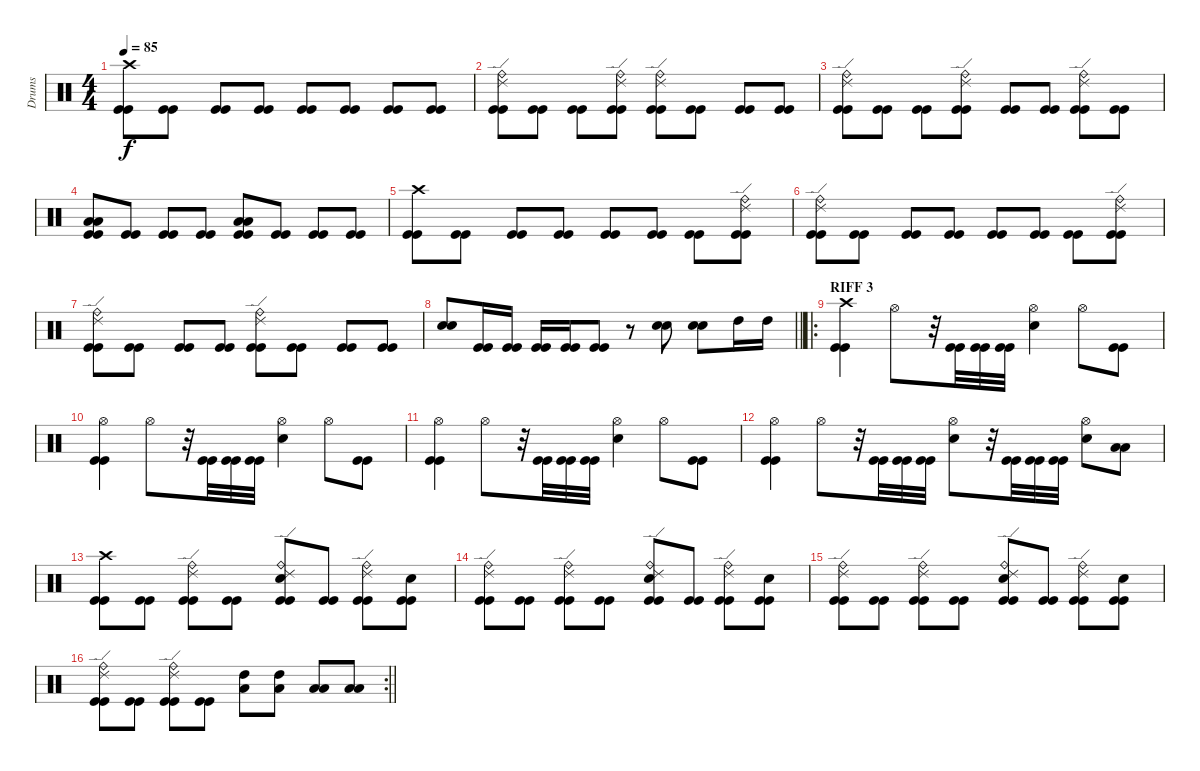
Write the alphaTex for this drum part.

\track ("Drums" "Drums") {instrument percussion}
\staff {score}
\articulation defaults
\ts (4 4)
\tempo 85
\clef neutral
\ks c
("Crash high (hit)" "Kick (hit)" "Kick (hit)").8{dy f} ("Kick (hit)" "Kick (hit)").8 ("Kick (hit)" "Kick (hit)").8 ("Kick (hit)" "Kick (hit)").8 ("Kick (hit)" "Kick (hit)").8 ("Kick (hit)" "Kick (hit)").8 ("Kick (hit)" "Kick (hit)").8 ("Kick (hit)" "Kick (hit)").8 |
("Ride (edge) 2" "Ride (bell)" "Kick (hit)" "Kick (hit)").8 ("Kick (hit)" "Kick (hit)").8 ("Kick (hit)" "Kick (hit)").8 ("Ride (edge) 2" "Ride (bell)" "Kick (hit)" "Kick (hit)").8 ("Ride (edge) 2" "Ride (bell)" "Kick (hit)" "Kick (hit)").8 ("Kick (hit)" "Kick (hit)").8 ("Kick (hit)" "Kick (hit)").8 ("Kick (hit)" "Kick (hit)").8 |
("Ride (edge) 2" "Ride (bell)" "Kick (hit)" "Kick (hit)").8 ("Kick (hit)" "Kick (hit)").8 ("Kick (hit)" "Kick (hit)").8 ("Ride (edge) 2" "Ride (bell)" "Kick (hit)" "Kick (hit)").8 ("Kick (hit)" "Kick (hit)").8 ("Kick (hit)" "Kick (hit)").8 ("Ride (edge) 2" "Ride (bell)" "Kick (hit)" "Kick (hit)").8 ("Kick (hit)" "Kick (hit)").8 |
("Low Floor Tom (hit)" "Low Tom (hit)" "Kick (hit)" "Kick (hit)").8 ("Kick (hit)" "Kick (hit)").8 ("Kick (hit)" "Kick (hit)").8 ("Kick (hit)" "Kick (hit)").8 ("Low Floor Tom (hit)" "Low Tom (hit)" "Kick (hit)" "Kick (hit)").8 ("Kick (hit)" "Kick (hit)").8 ("Kick (hit)" "Kick (hit)").8 ("Kick (hit)" "Kick (hit)").8 |
("Crash high (hit)" "Kick (hit)" "Kick (hit)").8 ("Kick (hit)" "Kick (hit)").8 ("Kick (hit)" "Kick (hit)").8 ("Kick (hit)" "Kick (hit)").8 ("Kick (hit)" "Kick (hit)").8 ("Kick (hit)" "Kick (hit)").8 ("Kick (hit)" "Kick (hit)").8 ("Ride (edge) 2" "Ride (bell)" "Kick (hit)" "Kick (hit)").8 |
("Ride (edge) 2" "Ride (bell)" "Kick (hit)" "Kick (hit)").8 ("Kick (hit)" "Kick (hit)").8 ("Kick (hit)" "Kick (hit)").8 ("Kick (hit)" "Kick (hit)").8 ("Kick (hit)" "Kick (hit)").8 ("Kick (hit)" "Kick (hit)").8 ("Kick (hit)" "Kick (hit)").8 ("Ride (edge) 2" "Ride (bell)" "Kick (hit)" "Kick (hit)").8 |
("Ride (edge) 2" "Ride (bell)" "Kick (hit)" "Kick (hit)").8 ("Kick (hit)" "Kick (hit)").8 ("Kick (hit)" "Kick (hit)").8 ("Kick (hit)" "Kick (hit)").8 ("Ride (edge) 2" "Ride (bell)" "Kick (hit)" "Kick (hit)").8 ("Kick (hit)" "Kick (hit)").8 ("Kick (hit)" "Kick (hit)").8 ("Kick (hit)" "Kick (hit)").8 |
\barLineRight lightlight
("Snare (hit) 2" "Snare (hit) 2").8 ("Kick (hit)" "Kick (hit)").16 ("Kick (hit)" "Kick (hit)").16 ("Kick (hit)" "Kick (hit)").16 ("Kick (hit)" "Kick (hit)").16 ("Kick (hit)" "Kick (hit)").8 r.8 ("Snare (hit) 2" "Snare (hit) 2").8 ("Snare (hit) 2" "Snare (hit) 2").8 "High Tom (hit)".16 "High Tom (hit)".16 |
\ro
\section ("" "RIFF 3")
("Crash high (hit)" "Kick (hit)" "Kick (hit)").4 "Hi-Hat (open)".8 r.32 ("Kick (hit)" "Kick (hit)").32 ("Kick (hit)" "Kick (hit)").32 ("Kick (hit)" "Kick (hit)").32 ("Hi-Hat (open)" "Snare (hit) 2").4 "Hi-Hat (open)".8 ("Kick (hit)" "Kick (hit)").8 |
("Hi-Hat (open)" "Kick (hit)" "Kick (hit)").4 "Hi-Hat (open)".8 r.32 ("Kick (hit)" "Kick (hit)").32 ("Kick (hit)" "Kick (hit)").32 ("Kick (hit)" "Kick (hit)").32 ("Hi-Hat (open)" "Snare (hit) 2").4 "Hi-Hat (open)".8 ("Kick (hit)" "Kick (hit)").8 |
("Hi-Hat (open)" "Kick (hit)" "Kick (hit)").4 "Hi-Hat (open)".8 r.32 ("Kick (hit)" "Kick (hit)").32 ("Kick (hit)" "Kick (hit)").32 ("Kick (hit)" "Kick (hit)").32 ("Hi-Hat (open)" "Snare (hit) 2").4 "Hi-Hat (open)".8 ("Kick (hit)" "Kick (hit)").8 |
("Hi-Hat (open)" "Kick (hit)" "Kick (hit)").4 "Hi-Hat (open)".8 r.32 ("Kick (hit)" "Kick (hit)").32 ("Kick (hit)" "Kick (hit)").32 ("Kick (hit)" "Kick (hit)").32 ("Hi-Hat (open)" "Snare (hit) 2").8 r.32 ("Kick (hit)" "Kick (hit)").32 ("Kick (hit)" "Kick (hit)").32 ("Kick (hit)" "Kick (hit)").32 ("Hi-Hat (open)" "Snare (hit) 2").8 ("Low Floor Tom (hit)" "Low Tom (hit)").8 |
("Crash high (hit)" "Kick (hit)" "Kick (hit)").8 ("Kick (hit)" "Kick (hit)").8 ("Ride (edge) 2" "Ride (bell)" "Kick (hit)" "Kick (hit)").8 ("Kick (hit)" "Kick (hit)").8 ("Ride (edge) 2" "Ride (bell)" "Snare (hit) 2" "Kick (hit)" "Kick (hit)").8 ("Kick (hit)" "Kick (hit)").8 ("Ride (edge) 2" "Ride (bell)" "Kick (hit)" "Kick (hit)").8 ("Snare (hit) 2" "Kick (hit)" "Kick (hit)").8 |
("Ride (edge) 2" "Ride (bell)" "Kick (hit)" "Kick (hit)").8 ("Kick (hit)" "Kick (hit)").8 ("Ride (edge) 2" "Ride (bell)" "Kick (hit)" "Kick (hit)").8 ("Kick (hit)" "Kick (hit)").8 ("Ride (edge) 2" "Ride (bell)" "Snare (hit) 2" "Kick (hit)" "Kick (hit)").8 ("Kick (hit)" "Kick (hit)").8 ("Ride (edge) 2" "Ride (bell)" "Kick (hit)" "Kick (hit)").8 ("Snare (hit) 2" "Kick (hit)" "Kick (hit)").8 |
("Ride (edge) 2" "Ride (bell)" "Kick (hit)" "Kick (hit)").8 ("Kick (hit)" "Kick (hit)").8 ("Ride (edge) 2" "Ride (bell)" "Kick (hit)" "Kick (hit)").8 ("Kick (hit)" "Kick (hit)").8 ("Ride (edge) 2" "Ride (bell)" "Snare (hit) 2" "Kick (hit)" "Kick (hit)").8 ("Kick (hit)" "Kick (hit)").8 ("Ride (edge) 2" "Ride (bell)" "Kick (hit)" "Kick (hit)").8 ("Snare (hit) 2" "Kick (hit)" "Kick (hit)").8 |
\rc 2
\barLineRight lightlight
("Ride (edge) 2" "Ride (bell)" "Kick (hit)" "Kick (hit)").8 ("Kick (hit)" "Kick (hit)").8 ("Ride (edge) 2" "Ride (bell)" "Kick (hit)" "Kick (hit)").8 ("Kick (hit)" "Kick (hit)").8 ("Low Tom (hit)" "High Tom (hit)").8 ("Low Tom (hit)" "High Tom (hit)").8 ("Low Floor Tom (hit)" "Low Tom (hit)").8 ("Low Floor Tom (hit)" "Low Tom (hit)").8
